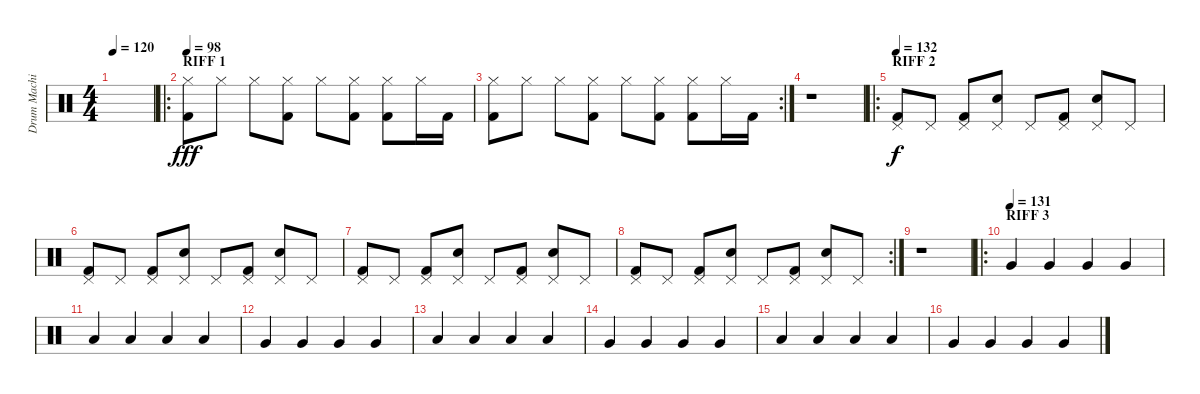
\track ("Drum Machine" "Drum Machi") {instrument percussion}
\staff {score}
\articulation defaults
\ts (4 4)
\tempo 120
\clef neutral
\ks c
|
\ro
\section ("" "RIFF 1")
\tempo 98
("Hi-Hat (closed)" "Kick (hit) 2").8{dy fff} "Hi-Hat (closed)".8 "Hi-Hat (closed)".8 ("Hi-Hat (closed)" "Kick (hit) 2").8 "Hi-Hat (closed)".8 ("Hi-Hat (closed)" "Kick (hit) 2").8 ("Hi-Hat (closed)" "Kick (hit) 2").8 "Hi-Hat (closed)".16 "Kick (hit) 2".16 |
\rc 2
("Hi-Hat (closed)" "Kick (hit) 2").8 "Hi-Hat (closed)".8 "Hi-Hat (closed)".8 ("Hi-Hat (closed)" "Kick (hit) 2").8 "Hi-Hat (closed)".8 ("Hi-Hat (closed)" "Kick (hit) 2").8 ("Hi-Hat (closed)" "Kick (hit) 2").8 "Hi-Hat (closed)".16 "Kick (hit) 2".16 |
r.1 |
\ro
\section ("" "RIFF 2")
\tempo 132
("Kick (hit) 2" "Pedal Hi-Hat (hit)").8{dy f} "Pedal Hi-Hat (hit)".8 ("Kick (hit) 2" "Pedal Hi-Hat (hit)").8 ("Electric Snare (hit)" "Pedal Hi-Hat (hit)").8 "Pedal Hi-Hat (hit)".8 ("Kick (hit) 2" "Pedal Hi-Hat (hit)").8 ("Electric Snare (hit)" "Pedal Hi-Hat (hit)").8 "Pedal Hi-Hat (hit)".8 |
("Kick (hit) 2" "Pedal Hi-Hat (hit)").8 "Pedal Hi-Hat (hit)".8 ("Kick (hit) 2" "Pedal Hi-Hat (hit)").8 ("Electric Snare (hit)" "Pedal Hi-Hat (hit)").8 "Pedal Hi-Hat (hit)".8 ("Kick (hit) 2" "Pedal Hi-Hat (hit)").8 ("Electric Snare (hit)" "Pedal Hi-Hat (hit)").8 "Pedal Hi-Hat (hit)".8 |
("Kick (hit) 2" "Pedal Hi-Hat (hit)").8 "Pedal Hi-Hat (hit)".8 ("Kick (hit) 2" "Pedal Hi-Hat (hit)").8 ("Electric Snare (hit)" "Pedal Hi-Hat (hit)").8 "Pedal Hi-Hat (hit)".8 ("Kick (hit) 2" "Pedal Hi-Hat (hit)").8 ("Electric Snare (hit)" "Pedal Hi-Hat (hit)").8 "Pedal Hi-Hat (hit)".8 |
\rc 2
("Kick (hit) 2" "Pedal Hi-Hat (hit)").8 "Pedal Hi-Hat (hit)".8 ("Kick (hit) 2" "Pedal Hi-Hat (hit)").8 ("Electric Snare (hit)" "Pedal Hi-Hat (hit)").8 "Pedal Hi-Hat (hit)".8 ("Kick (hit) 2" "Pedal Hi-Hat (hit)").8 ("Electric Snare (hit)" "Pedal Hi-Hat (hit)").8 "Pedal Hi-Hat (hit)".8 |
r.1 |
\ro
\section ("" "RIFF 3")
\tempo (131)
"Very Low Tom (hit)".4 "Very Low Tom (hit)".4 "Very Low Tom (hit)".4 "Very Low Tom (hit)".4 |
"Low Tom (hit)".4 "Low Tom (hit)".4 "Low Tom (hit)".4 "Low Tom (hit)".4 |
"Very Low Tom (hit)".4 "Very Low Tom (hit)".4 "Very Low Tom (hit)".4 "Very Low Tom (hit)".4 |
"Low Tom (hit)".4 "Low Tom (hit)".4 "Low Tom (hit)".4 "Low Tom (hit)".4 |
"Very Low Tom (hit)".4 "Very Low Tom (hit)".4 "Very Low Tom (hit)".4 "Very Low Tom (hit)".4 |
"Low Tom (hit)".4 "Low Tom (hit)".4 "Low Tom (hit)".4 "Low Tom (hit)".4 |
"Very Low Tom (hit)".4 "Very Low Tom (hit)".4 "Very Low Tom (hit)".4 "Very Low Tom (hit)".4
